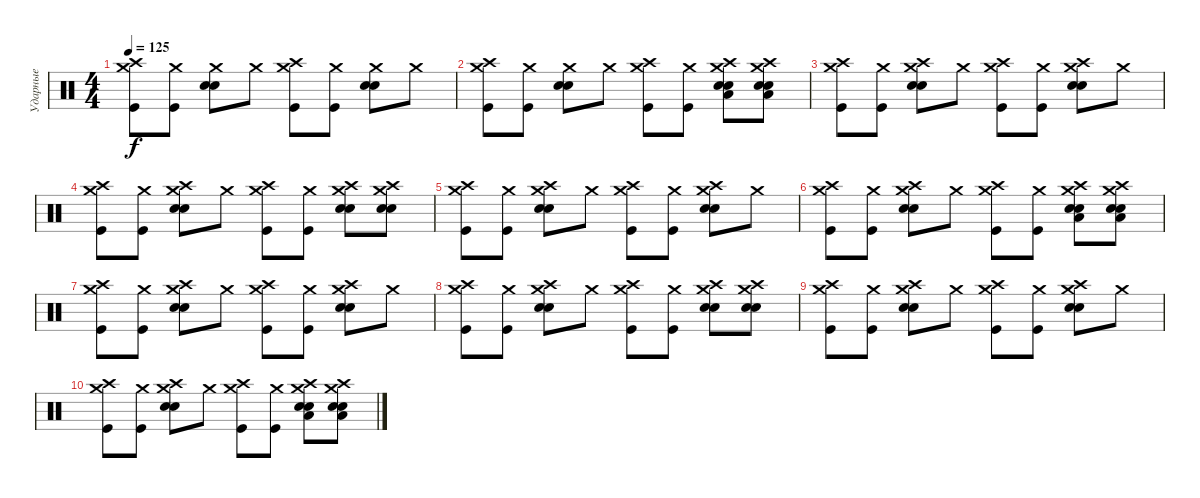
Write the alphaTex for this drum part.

\track ("Ударные" "Ударные") {instrument percussion}
\staff {score}
\articulation defaults
\ts (4 4)
\tempo 125
\clef neutral
\ks c
("Crash medium (hit)" "Crash high (hit)" "Kick (hit)").8{dy f} ("Crash medium (hit)" "Kick (hit)").8 ("Crash medium (hit)" "Snare (hit) 2" "Snare (hit) 2").8 "Crash medium (hit)".8 ("Crash medium (hit)" "Crash high (hit)" "Kick (hit)").8 ("Crash medium (hit)" "Kick (hit)").8 ("Crash medium (hit)" "Snare (hit) 2" "Snare (hit) 2").8 "Crash medium (hit)".8 |
("Crash medium (hit)" "Crash high (hit)" "Kick (hit)").8 ("Crash medium (hit)" "Kick (hit)").8 ("Crash medium (hit)" "Snare (hit) 2" "Snare (hit) 2").8 "Crash medium (hit)".8 ("Crash medium (hit)" "Crash high (hit)" "Kick (hit)").8 ("Crash medium (hit)" "Kick (hit)").8 ("Crash medium (hit)" "Crash high (hit)" "Low Floor Tom (hit)" "Snare (hit) 2" "Snare (hit) 2").8 ("Crash medium (hit)" "Crash high (hit)" "Low Floor Tom (hit)" "Snare (hit) 2" "Snare (hit) 2").8 |
("Crash medium (hit)" "Crash high (hit)" "Kick (hit)").8 ("Crash medium (hit)" "Kick (hit)").8 ("Crash medium (hit)" "Crash high (hit)" "Snare (hit) 2" "Snare (hit) 2").8 "Crash medium (hit)".8 ("Crash medium (hit)" "Crash high (hit)" "Kick (hit)").8 ("Crash medium (hit)" "Kick (hit)").8 ("Crash medium (hit)" "Crash high (hit)" "Snare (hit) 2" "Snare (hit) 2").8 "Crash medium (hit)".8 |
("Crash medium (hit)" "Crash high (hit)" "Kick (hit)").8 ("Crash medium (hit)" "Kick (hit)").8 ("Crash medium (hit)" "Crash high (hit)" "Snare (hit) 2" "Snare (hit) 2").8 "Crash medium (hit)".8 ("Crash medium (hit)" "Crash high (hit)" "Kick (hit)").8 ("Crash medium (hit)" "Kick (hit)").8 ("Crash medium (hit)" "Crash high (hit)" "Snare (hit) 2" "Snare (hit) 2").8 ("Crash medium (hit)" "Crash high (hit)" "Snare (hit) 2" "Snare (hit) 2").8 |
("Crash medium (hit)" "Crash high (hit)" "Kick (hit)").8 ("Crash medium (hit)" "Kick (hit)").8 ("Crash medium (hit)" "Crash high (hit)" "Snare (hit) 2" "Snare (hit) 2").8 "Crash medium (hit)".8 ("Crash medium (hit)" "Crash high (hit)" "Kick (hit)").8 ("Crash medium (hit)" "Kick (hit)").8 ("Crash medium (hit)" "Crash high (hit)" "Snare (hit) 2" "Snare (hit) 2").8 "Crash medium (hit)".8 |
("Crash medium (hit)" "Crash high (hit)" "Kick (hit)").8 ("Crash medium (hit)" "Kick (hit)").8 ("Crash medium (hit)" "Crash high (hit)" "Snare (hit) 2" "Snare (hit) 2").8 "Crash medium (hit)".8 ("Crash medium (hit)" "Crash high (hit)" "Kick (hit)").8 ("Crash medium (hit)" "Kick (hit)").8 ("Crash medium (hit)" "Crash high (hit)" "Low Floor Tom (hit)" "Snare (hit) 2" "Snare (hit) 2").8 ("Crash medium (hit)" "Crash high (hit)" "Low Floor Tom (hit)" "Snare (hit) 2" "Snare (hit) 2").8 |
("Crash medium (hit)" "Crash high (hit)" "Kick (hit)").8 ("Crash medium (hit)" "Kick (hit)").8 ("Crash medium (hit)" "Crash high (hit)" "Snare (hit) 2" "Snare (hit) 2").8 "Crash medium (hit)".8 ("Crash medium (hit)" "Crash high (hit)" "Kick (hit)").8 ("Crash medium (hit)" "Kick (hit)").8 ("Crash medium (hit)" "Crash high (hit)" "Snare (hit) 2" "Snare (hit) 2").8 "Crash medium (hit)".8 |
("Crash medium (hit)" "Crash high (hit)" "Kick (hit)").8 ("Crash medium (hit)" "Kick (hit)").8 ("Crash medium (hit)" "Crash high (hit)" "Snare (hit) 2" "Snare (hit) 2").8 "Crash medium (hit)".8 ("Crash medium (hit)" "Crash high (hit)" "Kick (hit)").8 ("Crash medium (hit)" "Kick (hit)").8 ("Crash medium (hit)" "Crash high (hit)" "Snare (hit) 2" "Snare (hit) 2").8 ("Crash medium (hit)" "Crash high (hit)" "Snare (hit) 2" "Snare (hit) 2").8 |
("Crash medium (hit)" "Crash high (hit)" "Kick (hit)").8 ("Crash medium (hit)" "Kick (hit)").8 ("Crash medium (hit)" "Crash high (hit)" "Snare (hit) 2" "Snare (hit) 2").8 "Crash medium (hit)".8 ("Crash medium (hit)" "Crash high (hit)" "Kick (hit)").8 ("Crash medium (hit)" "Kick (hit)").8 ("Crash medium (hit)" "Crash high (hit)" "Snare (hit) 2" "Snare (hit) 2").8 "Crash medium (hit)".8 |
("Crash medium (hit)" "Crash high (hit)" "Kick (hit)").8 ("Crash medium (hit)" "Kick (hit)").8 ("Crash medium (hit)" "Crash high (hit)" "Snare (hit) 2" "Snare (hit) 2").8 "Crash medium (hit)".8 ("Crash medium (hit)" "Crash high (hit)" "Kick (hit)").8 ("Crash medium (hit)" "Kick (hit)").8 ("Crash medium (hit)" "Crash high (hit)" "Low Floor Tom (hit)" "Snare (hit) 2" "Snare (hit) 2").8 ("Crash medium (hit)" "Crash high (hit)" "Low Floor Tom (hit)" "Snare (hit) 2" "Snare (hit) 2").8
